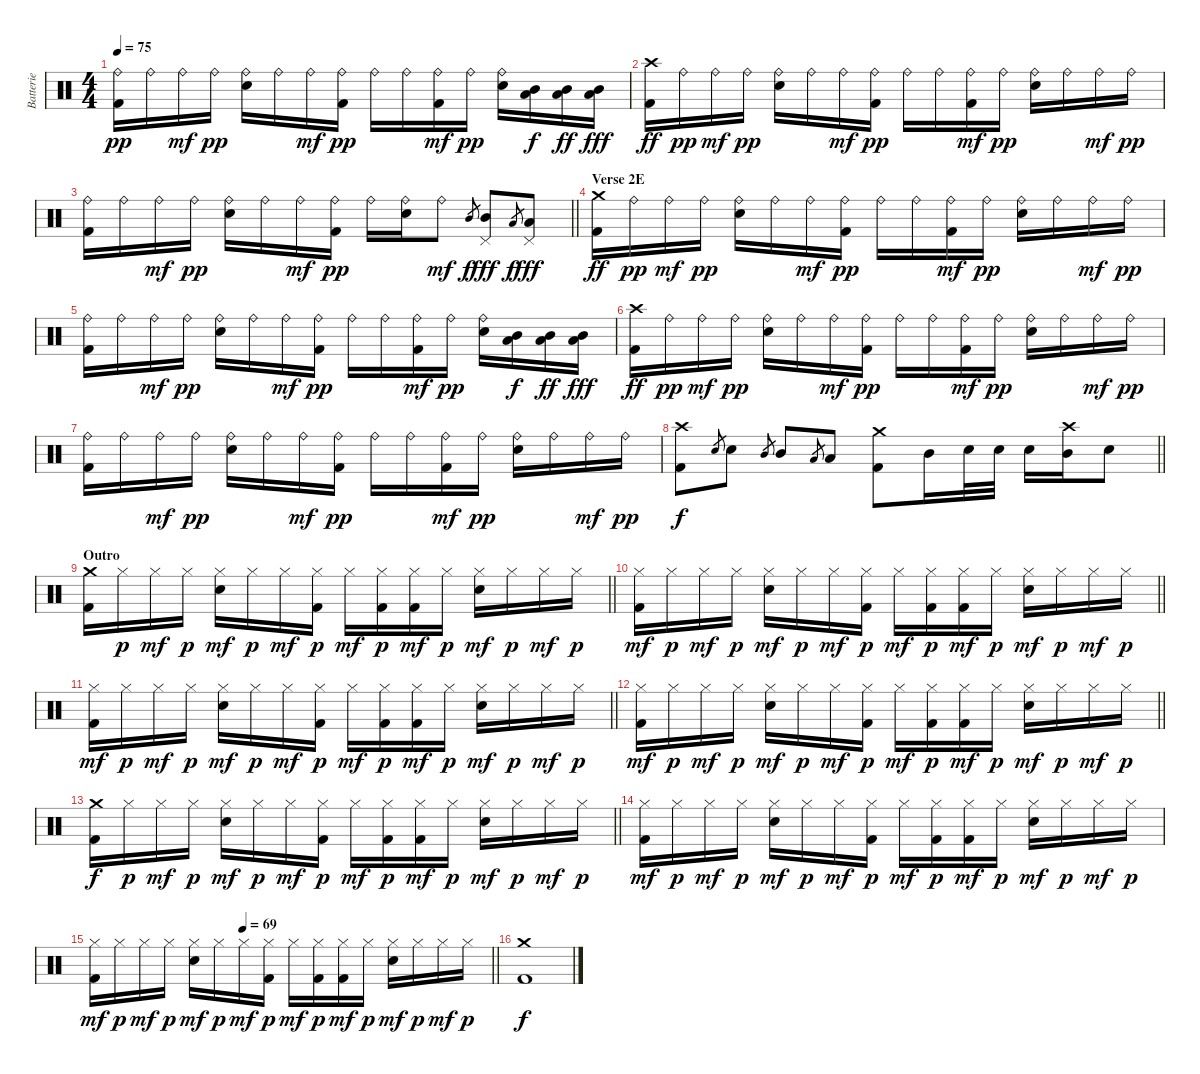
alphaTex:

\track ("Batterie" "Batterie") {instrument percussion}
\staff {score}
\articulation defaults
\ts (4 4)
\tempo 75
\clef neutral
\ks c
("Ride (bell)" "Kick (hit) 2").16{dy pp} "Ride (bell)".16 "Ride (bell)".16{dy mf} "Ride (bell)".16{dy pp} ("Ride (bell)" "Electric Snare (hit)").16 "Ride (bell)".16 "Ride (bell)".16{dy mf} ("Ride (bell)" "Kick (hit) 2").16{dy pp} "Ride (bell)".16 "Ride (bell)".16 ("Ride (bell)" "Kick (hit) 2").16{dy mf} "Ride (bell)".16{dy pp} ("Ride (bell)" "Electric Snare (hit)").16 ("Mid Tom (hit)" "Low Tom (hit)").16{dy f} ("Mid Tom (hit)" "Low Tom (hit)").16{dy ff} ("Mid Tom (hit)" "Low Tom (hit)").16{dy fff} |
("Crash high (hit)" "Kick (hit) 2").16{dy ff} "Ride (bell)".16{dy pp} "Ride (bell)".16{dy mf} "Ride (bell)".16{dy pp} ("Ride (bell)" "Electric Snare (hit)").16 "Ride (bell)".16 "Ride (bell)".16{dy mf} ("Ride (bell)" "Kick (hit) 2").16{dy pp} "Ride (bell)".16 "Ride (bell)".16 ("Ride (bell)" "Kick (hit) 2").16{dy mf} "Ride (bell)".16{dy pp} ("Ride (bell)" "Electric Snare (hit)").16 "Ride (bell)".16 "Ride (bell)".16{dy mf} "Ride (bell)".16{dy pp} |
\barLineRight lightlight
("Ride (bell)" "Kick (hit) 2").16 "Ride (bell)".16 "Ride (bell)".16{dy mf} "Ride (bell)".16{dy pp} ("Ride (bell)" "Electric Snare (hit)").16 "Ride (bell)".16 "Ride (bell)".16{dy mf} ("Ride (bell)" "Kick (hit) 2").16{dy pp} "Ride (bell)".16 ("Ride (bell)" "Electric Snare (hit)").16 "Ride (bell)".8{dy mf} "Mid Tom (hit)".8{gr dy f} ("Pedal Hi-Hat (hit)" "Mid Tom (hit)").8{dy fff} "Low Tom (hit)".8{gr dy f} ("Pedal Hi-Hat (hit)" "Low Tom (hit)").8{dy fff} |
\section ("" "Verse 2E")
("Crash medium (hit)" "Kick (hit) 2").16{dy ff} "Ride (bell)".16{dy pp} "Ride (bell)".16{dy mf} "Ride (bell)".16{dy pp} ("Ride (bell)" "Electric Snare (hit)").16 "Ride (bell)".16 "Ride (bell)".16{dy mf} ("Ride (bell)" "Kick (hit) 2").16{dy pp} "Ride (bell)".16 "Ride (bell)".16 ("Ride (bell)" "Kick (hit) 2").16{dy mf} "Ride (bell)".16{dy pp} ("Ride (bell)" "Electric Snare (hit)").16 "Ride (bell)".16 "Ride (bell)".16{dy mf} "Ride (bell)".16{dy pp} |
("Ride (bell)" "Kick (hit) 2").16 "Ride (bell)".16 "Ride (bell)".16{dy mf} "Ride (bell)".16{dy pp} ("Ride (bell)" "Electric Snare (hit)").16 "Ride (bell)".16 "Ride (bell)".16{dy mf} ("Ride (bell)" "Kick (hit) 2").16{dy pp} "Ride (bell)".16 "Ride (bell)".16 ("Ride (bell)" "Kick (hit) 2").16{dy mf} "Ride (bell)".16{dy pp} ("Ride (bell)" "Electric Snare (hit)").16 ("Mid Tom (hit)" "Low Tom (hit)").16{dy f} ("Mid Tom (hit)" "Low Tom (hit)").16{dy ff} ("Mid Tom (hit)" "Low Tom (hit)").16{dy fff} |
("Crash high (hit)" "Kick (hit) 2").16{dy ff} "Ride (bell)".16{dy pp} "Ride (bell)".16{dy mf} "Ride (bell)".16{dy pp} ("Ride (bell)" "Electric Snare (hit)").16 "Ride (bell)".16 "Ride (bell)".16{dy mf} ("Ride (bell)" "Kick (hit) 2").16{dy pp} "Ride (bell)".16 "Ride (bell)".16 ("Ride (bell)" "Kick (hit) 2").16{dy mf} "Ride (bell)".16{dy pp} ("Ride (bell)" "Electric Snare (hit)").16 "Ride (bell)".16 "Ride (bell)".16{dy mf} "Ride (bell)".16{dy pp} |
("Ride (bell)" "Kick (hit) 2").16 "Ride (bell)".16 "Ride (bell)".16{dy mf} "Ride (bell)".16{dy pp} ("Ride (bell)" "Electric Snare (hit)").16 "Ride (bell)".16 "Ride (bell)".16{dy mf} ("Ride (bell)" "Kick (hit) 2").16{dy pp} "Ride (bell)".16 "Ride (bell)".16 ("Ride (bell)" "Kick (hit) 2").16{dy mf} "Ride (bell)".16{dy pp} ("Ride (bell)" "Electric Snare (hit)").16 "Ride (bell)".16 "Ride (bell)".16{dy mf} "Ride (bell)".16{dy pp} |
\barLineRight lightlight
("Crash high (hit)" "Kick (hit) 2").8{dy f} "Electric Snare (hit)".8{gr} "Electric Snare (hit)".8 "Mid Tom (hit)".8{gr} "Mid Tom (hit)".8 "Low Tom (hit)".8{gr} "Low Tom (hit)".8 ("Crash medium (hit)" "Kick (hit) 2").8 "Mid Tom (hit)".16 "Electric Snare (hit)".32 "Electric Snare (hit)".32 "Electric Snare (hit)".16 ("Crash high (hit)" "Mid Tom (hit)").16 "Electric Snare (hit)".8 |
\section ("" "Outro")
\barLineRight lightlight
("Crash medium (hit)" "Kick (hit) 2").16 "Hi-Hat (closed)".16{dy p} "Hi-Hat (closed)".16{dy mf} "Hi-Hat (closed)".16{dy p} ("Hi-Hat (closed)" "Electric Snare (hit)").16{dy mf} "Hi-Hat (closed)".16{dy p} "Hi-Hat (closed)".16{dy mf} ("Hi-Hat (closed)" "Kick (hit) 2").16{dy p} "Hi-Hat (closed)".16{dy mf} ("Hi-Hat (closed)" "Kick (hit) 2").16{dy p} ("Hi-Hat (closed)" "Kick (hit) 2").16{dy mf} "Hi-Hat (closed)".16{dy p} ("Hi-Hat (closed)" "Electric Snare (hit)").16{dy mf} "Hi-Hat (closed)".16{dy p} "Hi-Hat (closed)".16{dy mf} "Hi-Hat (closed)".16{dy p} |
\barLineRight lightlight
("Hi-Hat (closed)" "Kick (hit) 2").16{dy mf} "Hi-Hat (closed)".16{dy p} "Hi-Hat (closed)".16{dy mf} "Hi-Hat (closed)".16{dy p} ("Hi-Hat (closed)" "Electric Snare (hit)").16{dy mf} "Hi-Hat (closed)".16{dy p} "Hi-Hat (closed)".16{dy mf} ("Hi-Hat (closed)" "Kick (hit) 2").16{dy p} "Hi-Hat (closed)".16{dy mf} ("Hi-Hat (closed)" "Kick (hit) 2").16{dy p} ("Hi-Hat (closed)" "Kick (hit) 2").16{dy mf} "Hi-Hat (closed)".16{dy p} ("Hi-Hat (closed)" "Electric Snare (hit)").16{dy mf} "Hi-Hat (closed)".16{dy p} "Hi-Hat (closed)".16{dy mf} "Hi-Hat (closed)".16{dy p} |
\barLineRight lightlight
("Hi-Hat (closed)" "Kick (hit) 2").16{dy mf} "Hi-Hat (closed)".16{dy p} "Hi-Hat (closed)".16{dy mf} "Hi-Hat (closed)".16{dy p} ("Hi-Hat (closed)" "Electric Snare (hit)").16{dy mf} "Hi-Hat (closed)".16{dy p} "Hi-Hat (closed)".16{dy mf} ("Hi-Hat (closed)" "Kick (hit) 2").16{dy p} "Hi-Hat (closed)".16{dy mf} ("Hi-Hat (closed)" "Kick (hit) 2").16{dy p} ("Hi-Hat (closed)" "Kick (hit) 2").16{dy mf} "Hi-Hat (closed)".16{dy p} ("Hi-Hat (closed)" "Electric Snare (hit)").16{dy mf} "Hi-Hat (closed)".16{dy p} "Hi-Hat (closed)".16{dy mf} "Hi-Hat (closed)".16{dy p} |
\barLineRight lightlight
("Hi-Hat (closed)" "Kick (hit) 2").16{dy mf} "Hi-Hat (closed)".16{dy p} "Hi-Hat (closed)".16{dy mf} "Hi-Hat (closed)".16{dy p} ("Hi-Hat (closed)" "Electric Snare (hit)").16{dy mf} "Hi-Hat (closed)".16{dy p} "Hi-Hat (closed)".16{dy mf} ("Hi-Hat (closed)" "Kick (hit) 2").16{dy p} "Hi-Hat (closed)".16{dy mf} ("Hi-Hat (closed)" "Kick (hit) 2").16{dy p} ("Hi-Hat (closed)" "Kick (hit) 2").16{dy mf} "Hi-Hat (closed)".16{dy p} ("Hi-Hat (closed)" "Electric Snare (hit)").16{dy mf} "Hi-Hat (closed)".16{dy p} "Hi-Hat (closed)".16{dy mf} "Hi-Hat (closed)".16{dy p} |
\barLineRight lightlight
("Crash medium (hit)" "Kick (hit) 2").16{dy f} "Hi-Hat (closed)".16{dy p} "Hi-Hat (closed)".16{dy mf} "Hi-Hat (closed)".16{dy p} ("Hi-Hat (closed)" "Electric Snare (hit)").16{dy mf} "Hi-Hat (closed)".16{dy p} "Hi-Hat (closed)".16{dy mf} ("Hi-Hat (closed)" "Kick (hit) 2").16{dy p} "Hi-Hat (closed)".16{dy mf} ("Hi-Hat (closed)" "Kick (hit) 2").16{dy p} ("Hi-Hat (closed)" "Kick (hit) 2").16{dy mf} "Hi-Hat (closed)".16{dy p} ("Hi-Hat (closed)" "Electric Snare (hit)").16{dy mf} "Hi-Hat (closed)".16{dy p} "Hi-Hat (closed)".16{dy mf} "Hi-Hat (closed)".16{dy p} |
("Hi-Hat (closed)" "Kick (hit) 2").16{dy mf} "Hi-Hat (closed)".16{dy p} "Hi-Hat (closed)".16{dy mf} "Hi-Hat (closed)".16{dy p} ("Hi-Hat (closed)" "Electric Snare (hit)").16{dy mf} "Hi-Hat (closed)".16{dy p} "Hi-Hat (closed)".16{dy mf} ("Hi-Hat (closed)" "Kick (hit) 2").16{dy p} "Hi-Hat (closed)".16{dy mf} ("Hi-Hat (closed)" "Kick (hit) 2").16{dy p} ("Hi-Hat (closed)" "Kick (hit) 2").16{dy mf} "Hi-Hat (closed)".16{dy p} ("Hi-Hat (closed)" "Electric Snare (hit)").16{dy mf} "Hi-Hat (closed)".16{dy p} "Hi-Hat (closed)".16{dy mf} "Hi-Hat (closed)".16{dy p} |
\tempo (69 0.375)
\barLineRight lightlight
("Hi-Hat (closed)" "Kick (hit) 2").16{dy mf} "Hi-Hat (closed)".16{dy p} "Hi-Hat (closed)".16{dy mf} "Hi-Hat (closed)".16{dy p} ("Hi-Hat (closed)" "Electric Snare (hit)").16{dy mf} "Hi-Hat (closed)".16{dy p} "Hi-Hat (closed)".16{dy mf} ("Hi-Hat (closed)" "Kick (hit) 2").16{dy p} "Hi-Hat (closed)".16{dy mf} ("Hi-Hat (closed)" "Kick (hit) 2").16{dy p} ("Hi-Hat (closed)" "Kick (hit) 2").16{dy mf} "Hi-Hat (closed)".16{dy p} ("Hi-Hat (closed)" "Electric Snare (hit)").16{dy mf} "Hi-Hat (closed)".16{dy p} "Hi-Hat (closed)".16{dy mf} "Hi-Hat (closed)".16{dy p} |
("Crash medium (hit)" "Kick (hit) 2").1{dy f volume 0}
